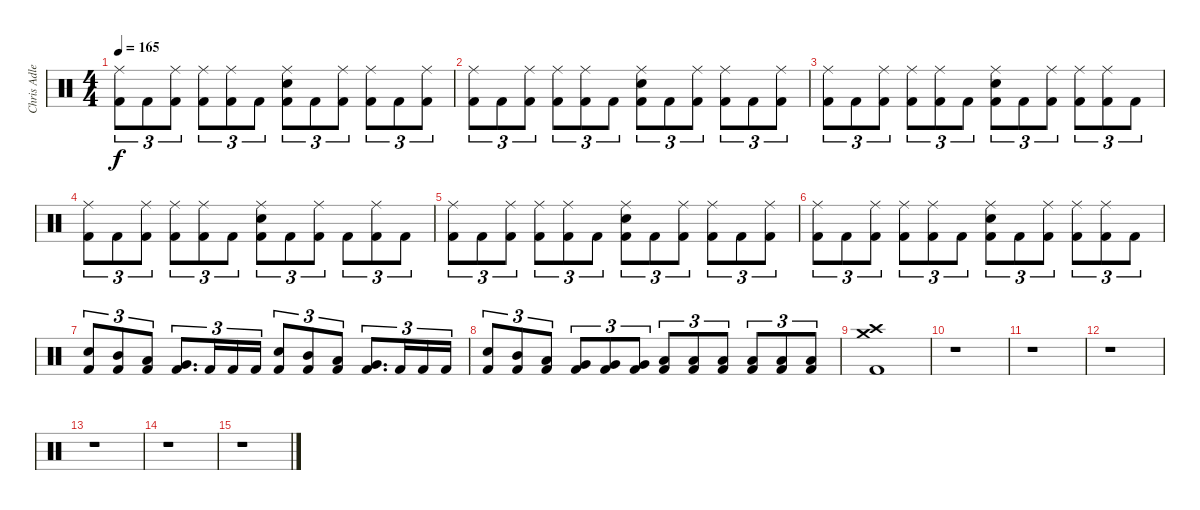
\track ("Chris Adler" "Chris Adle") {instrument percussion}
\staff {score}
\articulation defaults
\ts (4 4)
\tempo 165
\clef neutral
\ks c
("Ride (middle)" "Kick (hit) 2").8{tu (3 2) dy f} "Kick (hit) 2".8{tu (3 2)} ("Ride (middle)" "Kick (hit) 2").8{tu (3 2)} ("Ride (middle)" "Kick (hit) 2").8{tu (3 2)} ("Ride (middle)" "Kick (hit) 2").8{tu (3 2)} "Kick (hit) 2".8{tu (3 2)} ("Ride (middle)" "Electric Snare (hit)" "Kick (hit) 2").8{tu (3 2)} "Kick (hit) 2".8{tu (3 2)} ("Ride (middle)" "Kick (hit) 2").8{tu (3 2)} ("Ride (middle)" "Kick (hit) 2").8{tu (3 2)} "Kick (hit) 2".8{tu (3 2)} ("Ride (middle)" "Kick (hit) 2").8{tu (3 2)} |
("Ride (middle)" "Kick (hit) 2").8{tu (3 2)} "Kick (hit) 2".8{tu (3 2)} ("Ride (middle)" "Kick (hit) 2").8{tu (3 2)} ("Ride (middle)" "Kick (hit) 2").8{tu (3 2)} ("Ride (middle)" "Kick (hit) 2").8{tu (3 2)} "Kick (hit) 2".8{tu (3 2)} ("Ride (middle)" "Electric Snare (hit)" "Kick (hit) 2").8{tu (3 2)} "Kick (hit) 2".8{tu (3 2)} ("Ride (middle)" "Kick (hit) 2").8{tu (3 2)} ("Ride (middle)" "Kick (hit) 2").8{tu (3 2)} "Kick (hit) 2".8{tu (3 2)} ("Ride (middle)" "Kick (hit) 2").8{tu (3 2)} |
("Ride (middle)" "Kick (hit) 2").8{tu (3 2)} "Kick (hit) 2".8{tu (3 2)} ("Ride (middle)" "Kick (hit) 2").8{tu (3 2)} ("Ride (middle)" "Kick (hit) 2").8{tu (3 2)} ("Ride (middle)" "Kick (hit) 2").8{tu (3 2)} "Kick (hit) 2".8{tu (3 2)} ("Ride (middle)" "Electric Snare (hit)" "Kick (hit) 2").8{tu (3 2)} "Kick (hit) 2".8{tu (3 2)} ("Ride (middle)" "Kick (hit) 2").8{tu (3 2)} ("Ride (middle)" "Kick (hit) 2").8{tu (3 2)} ("Ride (middle)" "Kick (hit) 2").8{tu (3 2)} "Kick (hit) 2".8{tu (3 2)} |
("Ride (middle)" "Kick (hit) 2").8{tu (3 2)} "Kick (hit) 2".8{tu (3 2)} ("Ride (middle)" "Kick (hit) 2").8{tu (3 2)} ("Ride (middle)" "Kick (hit) 2").8{tu (3 2)} ("Ride (middle)" "Kick (hit) 2").8{tu (3 2)} "Kick (hit) 2".8{tu (3 2)} ("Ride (middle)" "Electric Snare (hit)" "Kick (hit) 2").8{tu (3 2)} "Kick (hit) 2".8{tu (3 2)} ("Ride (middle)" "Kick (hit) 2").8{tu (3 2)} "Kick (hit) 2".8{tu (3 2)} ("Ride (middle)" "Kick (hit) 2").8{tu (3 2)} "Kick (hit) 2".8{tu (3 2)} |
("Ride (middle)" "Kick (hit) 2").8{tu (3 2)} "Kick (hit) 2".8{tu (3 2)} ("Ride (middle)" "Kick (hit) 2").8{tu (3 2)} ("Ride (middle)" "Kick (hit) 2").8{tu (3 2)} ("Ride (middle)" "Kick (hit) 2").8{tu (3 2)} "Kick (hit) 2".8{tu (3 2)} ("Ride (middle)" "Electric Snare (hit)" "Kick (hit) 2").8{tu (3 2)} "Kick (hit) 2".8{tu (3 2)} ("Ride (middle)" "Kick (hit) 2").8{tu (3 2)} ("Ride (middle)" "Kick (hit) 2").8{tu (3 2)} "Kick (hit) 2".8{tu (3 2)} ("Ride (middle)" "Kick (hit) 2").8{tu (3 2)} |
("Ride (middle)" "Kick (hit) 2").8{tu (3 2)} "Kick (hit) 2".8{tu (3 2)} ("Ride (middle)" "Kick (hit) 2").8{tu (3 2)} ("Ride (middle)" "Kick (hit) 2").8{tu (3 2)} ("Ride (middle)" "Kick (hit) 2").8{tu (3 2)} "Kick (hit) 2".8{tu (3 2)} ("Ride (middle)" "Electric Snare (hit)" "Kick (hit) 2").8{tu (3 2)} "Kick (hit) 2".8{tu (3 2)} ("Ride (middle)" "Kick (hit) 2").8{tu (3 2)} ("Ride (middle)" "Kick (hit) 2").8{tu (3 2)} ("Ride (middle)" "Kick (hit) 2").8{tu (3 2)} "Kick (hit) 2".8{tu (3 2)} |
("Electric Snare (hit)" "Kick (hit) 2").8{tu (3 2)} ("Mid Tom (hit)" "Kick (hit) 2").8{tu (3 2)} ("Low Tom (hit)" "Kick (hit) 2").8{tu (3 2)} ("Very Low Tom (hit)" "Kick (hit) 2").8{d tu (3 2)} "Kick (hit) 2".16{tu (3 2)} "Kick (hit) 2".16{tu (3 2)} "Kick (hit) 2".16{tu (3 2)} ("Electric Snare (hit)" "Kick (hit) 2").8{tu (3 2)} ("Mid Tom (hit)" "Kick (hit) 2").8{tu (3 2)} ("Low Tom (hit)" "Kick (hit) 2").8{tu (3 2)} ("Very Low Tom (hit)" "Kick (hit) 2").8{d tu (3 2)} "Kick (hit) 2".16{tu (3 2)} "Kick (hit) 2".16{tu (3 2)} "Kick (hit) 2".16{tu (3 2)} |
("Electric Snare (hit)" "Kick (hit) 2").8{tu (3 2)} ("Mid Tom (hit)" "Kick (hit) 2").8{tu (3 2)} ("Low Tom (hit)" "Kick (hit) 2").8{tu (3 2)} ("Very Low Tom (hit)" "Kick (hit) 2").8{tu (3 2)} ("Very Low Tom (hit)" "Kick (hit) 2").8{tu (3 2)} ("Very Low Tom (hit)" "Kick (hit) 2").8{tu (3 2)} ("Low Floor Tom (hit)" "Kick (hit) 2").8{tu (3 2)} ("Low Floor Tom (hit)" "Kick (hit) 2").8{tu (3 2)} ("Low Floor Tom (hit)" "Kick (hit) 2").8{tu (3 2)} ("Low Floor Tom (hit)" "Kick (hit) 2").8{tu (3 2)} ("Low Floor Tom (hit)" "Kick (hit) 2").8{tu (3 2)} ("Low Floor Tom (hit)" "Kick (hit) 2").8{tu (3 2)} |
("Crash medium (hit)" "Crash high (hit)" "Kick (hit) 2").1 |
r.1 |
r.1 |
r.1 |
r.1 |
r.1 |
r.1
